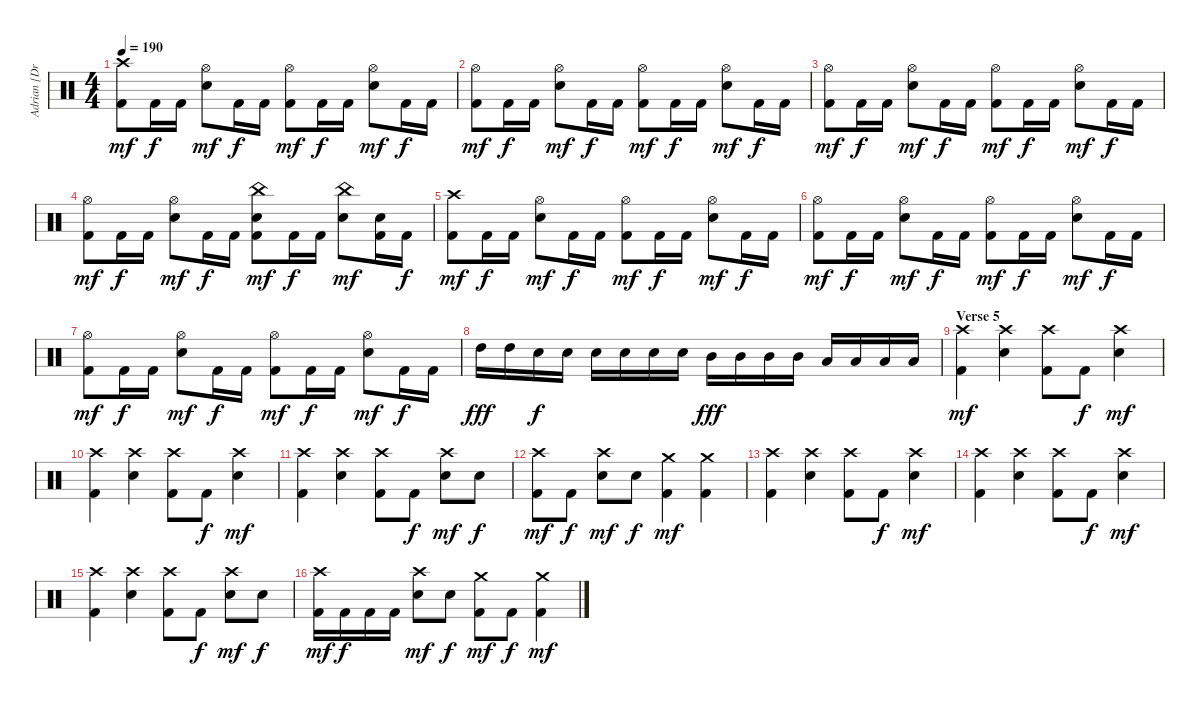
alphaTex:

\track ("Adrian [Drums]" "Adrian [Dr") {instrument percussion}
\staff {score}
\articulation defaults
\ts (4 4)
\tempo 190
\clef neutral
\ks c
("Crash high (hit)" "Kick (hit) 2").8{dy mf} "Kick (hit) 2".16{dy f} "Kick (hit) 2".16 ("Hi-Hat (open)" "Electric Snare (hit)").8{dy mf} "Kick (hit) 2".16{dy f} "Kick (hit) 2".16 ("Hi-Hat (open)" "Kick (hit) 2").8{dy mf} "Kick (hit) 2".16{dy f} "Kick (hit) 2".16 ("Hi-Hat (open)" "Electric Snare (hit)").8{dy mf} "Kick (hit) 2".16{dy f} "Kick (hit) 2".16 |
("Hi-Hat (open)" "Kick (hit) 2").8{dy mf} "Kick (hit) 2".16{dy f} "Kick (hit) 2".16 ("Hi-Hat (open)" "Electric Snare (hit)").8{dy mf} "Kick (hit) 2".16{dy f} "Kick (hit) 2".16 ("Hi-Hat (open)" "Kick (hit) 2").8{dy mf} "Kick (hit) 2".16{dy f} "Kick (hit) 2".16 ("Hi-Hat (open)" "Electric Snare (hit)").8{dy mf} "Kick (hit) 2".16{dy f} "Kick (hit) 2".16 |
("Hi-Hat (open)" "Kick (hit) 2").8{dy mf} "Kick (hit) 2".16{dy f} "Kick (hit) 2".16 ("Hi-Hat (open)" "Electric Snare (hit)").8{dy mf} "Kick (hit) 2".16{dy f} "Kick (hit) 2".16 ("Hi-Hat (open)" "Kick (hit) 2").8{dy mf} "Kick (hit) 2".16{dy f} "Kick (hit) 2".16 ("Hi-Hat (open)" "Electric Snare (hit)").8{dy mf} "Kick (hit) 2".16{dy f} "Kick (hit) 2".16 |
("Hi-Hat (open)" "Kick (hit) 2").8{dy mf} "Kick (hit) 2".16{dy f} "Kick (hit) 2".16 ("Hi-Hat (open)" "Electric Snare (hit)").8{dy mf} "Kick (hit) 2".16{dy f} "Kick (hit) 2".16 ("China (hit)" "Electric Snare (hit)" "Kick (hit) 2").8{dy mf} "Kick (hit) 2".16{dy f} "Kick (hit) 2".16 ("China (hit)" "Electric Snare (hit)").8{dy mf} ("Electric Snare (hit)" "Kick (hit) 2").16 "Kick (hit) 2".16{dy f} |
("Crash high (hit)" "Kick (hit) 2").8{dy mf} "Kick (hit) 2".16{dy f} "Kick (hit) 2".16 ("Hi-Hat (open)" "Electric Snare (hit)").8{dy mf} "Kick (hit) 2".16{dy f} "Kick (hit) 2".16 ("Hi-Hat (open)" "Kick (hit) 2").8{dy mf} "Kick (hit) 2".16{dy f} "Kick (hit) 2".16 ("Hi-Hat (open)" "Electric Snare (hit)").8{dy mf} "Kick (hit) 2".16{dy f} "Kick (hit) 2".16 |
("Hi-Hat (open)" "Kick (hit) 2").8{dy mf} "Kick (hit) 2".16{dy f} "Kick (hit) 2".16 ("Hi-Hat (open)" "Electric Snare (hit)").8{dy mf} "Kick (hit) 2".16{dy f} "Kick (hit) 2".16 ("Hi-Hat (open)" "Kick (hit) 2").8{dy mf} "Kick (hit) 2".16{dy f} "Kick (hit) 2".16 ("Hi-Hat (open)" "Electric Snare (hit)").8{dy mf} "Kick (hit) 2".16{dy f} "Kick (hit) 2".16 |
("Hi-Hat (open)" "Kick (hit) 2").8{dy mf} "Kick (hit) 2".16{dy f} "Kick (hit) 2".16 ("Hi-Hat (open)" "Electric Snare (hit)").8{dy mf} "Kick (hit) 2".16{dy f} "Kick (hit) 2".16 ("Hi-Hat (open)" "Kick (hit) 2").8{dy mf} "Kick (hit) 2".16{dy f} "Kick (hit) 2".16 ("Hi-Hat (open)" "Electric Snare (hit)").8{dy mf} "Kick (hit) 2".16{dy f} "Kick (hit) 2".16 |
"High Tom (hit)".16{dy fff} "High Tom (hit)".16 "Electric Snare (hit)".16{dy f} "Electric Snare (hit)".16 "Electric Snare (hit)".16 "Electric Snare (hit)".16 "Electric Snare (hit)".16 "Electric Snare (hit)".16 "Mid Tom (hit)".16{dy fff} "Mid Tom (hit)".16 "Mid Tom (hit)".16 "Mid Tom (hit)".16 "Low Tom (hit)".16 "Low Tom (hit)".16 "Low Tom (hit)".16 "Low Tom (hit)".16 |
\section ("" "Verse 5")
("Crash high (hit)" "Kick (hit) 2").4{dy mf} ("Crash high (hit)" "Electric Snare (hit)").4 ("Crash high (hit)" "Kick (hit) 2").8 "Kick (hit) 2".8{dy f} ("Crash high (hit)" "Electric Snare (hit)").4{dy mf} |
("Crash high (hit)" "Kick (hit) 2").4 ("Crash high (hit)" "Electric Snare (hit)").4 ("Crash high (hit)" "Kick (hit) 2").8 "Kick (hit) 2".8{dy f} ("Crash high (hit)" "Electric Snare (hit)").4{dy mf} |
("Crash high (hit)" "Kick (hit) 2").4 ("Crash high (hit)" "Electric Snare (hit)").4 ("Crash high (hit)" "Kick (hit) 2").8 "Kick (hit) 2".8{dy f} ("Crash high (hit)" "Electric Snare (hit)").8{dy mf} "Electric Snare (hit)".8{dy f} |
("Crash high (hit)" "Kick (hit) 2").8{dy mf} "Kick (hit) 2".8{dy f} ("Crash high (hit)" "Electric Snare (hit)").8{dy mf} "Electric Snare (hit)".8{dy f} ("Crash medium (hit)" "Kick (hit) 2").4{dy mf} ("Crash medium (hit)" "Kick (hit) 2").4 |
("Crash high (hit)" "Kick (hit) 2").4 ("Crash high (hit)" "Electric Snare (hit)").4 ("Crash high (hit)" "Kick (hit) 2").8 "Kick (hit) 2".8{dy f} ("Crash high (hit)" "Electric Snare (hit)").4{dy mf} |
("Crash high (hit)" "Kick (hit) 2").4 ("Crash high (hit)" "Electric Snare (hit)").4 ("Crash high (hit)" "Kick (hit) 2").8 "Kick (hit) 2".8{dy f} ("Crash high (hit)" "Electric Snare (hit)").4{dy mf} |
("Crash high (hit)" "Kick (hit) 2").4 ("Crash high (hit)" "Electric Snare (hit)").4 ("Crash high (hit)" "Kick (hit) 2").8 "Kick (hit) 2".8{dy f} ("Crash high (hit)" "Electric Snare (hit)").8{dy mf} "Electric Snare (hit)".8{dy f} |
("Crash high (hit)" "Kick (hit) 2").16{dy mf} "Kick (hit) 2".16{dy f} "Kick (hit) 2".16 "Kick (hit) 2".16 ("Crash high (hit)" "Electric Snare (hit)").8{dy mf} "Electric Snare (hit)".8{dy f} ("Crash medium (hit)" "Kick (hit) 2").8{dy mf} "Kick (hit) 2".8{dy f} ("Crash medium (hit)" "Kick (hit) 2").4{dy mf}
